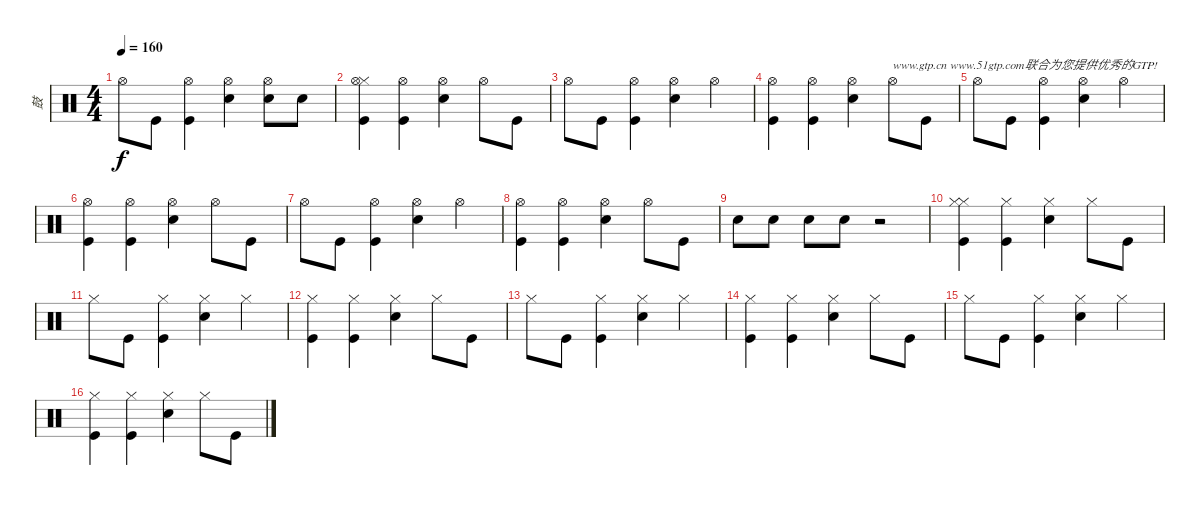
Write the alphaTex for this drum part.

\track ("鼓" "鼓") {instrument percussion}
\staff {score}
\articulation defaults
\ts (4 4)
\tempo 160
\clef neutral
\ks c "Hi-Hat (open)".8{dy f} "Kick (hit)".8
("Hi-Hat (open)" "Kick (hit)").4 ("Hi-Hat (open)" "Electric Snare (hit)").4 ("Hi-Hat (open)" "Electric Snare (hit)").8 "Electric Snare (hit)".8 |
("Hi-Hat (closed)" "Hi-Hat (open)" "Kick (hit)").4 ("Hi-Hat (open)" "Kick (hit)").4 ("Hi-Hat (open)" "Electric Snare (hit)").4 "Hi-Hat (open)".8 "Kick (hit)".8 |
"Hi-Hat (open)".8 "Kick (hit)".8 ("Hi-Hat (open)" "Kick (hit)").4 ("Hi-Hat (open)" "Electric Snare (hit)").4 "Hi-Hat (open)".4 |
("Hi-Hat (open)" "Kick (hit)").4 ("Hi-Hat (open)" "Kick (hit)").4 ("Hi-Hat (open)" "Electric Snare (hit)").4 "Hi-Hat (open)".8{txt "www.gtp.cn www.51gtp.com联合为您提供优秀的GTP!"} "Kick (hit)".8 |
"Hi-Hat (open)".8 "Kick (hit)".8 ("Hi-Hat (open)" "Kick (hit)").4 ("Hi-Hat (open)" "Electric Snare (hit)").4 "Hi-Hat (open)".4 |
("Hi-Hat (open)" "Kick (hit)").4 ("Hi-Hat (open)" "Kick (hit)").4 ("Hi-Hat (open)" "Electric Snare (hit)").4 "Hi-Hat (open)".8 "Kick (hit)".8 |
"Hi-Hat (open)".8 "Kick (hit)".8 ("Hi-Hat (open)" "Kick (hit)").4 ("Hi-Hat (open)" "Electric Snare (hit)").4 "Hi-Hat (open)".4 |
("Hi-Hat (open)" "Kick (hit)").4 ("Hi-Hat (open)" "Kick (hit)").4 ("Hi-Hat (open)" "Electric Snare (hit)").4 "Hi-Hat (open)".8 "Kick (hit)".8 |
"Electric Snare (hit)".8 "Electric Snare (hit)".8 "Electric Snare (hit)".8 "Electric Snare (hit)".8 r.2 |
("Hi-Hat (closed)" "Hi-Hat (closed)" "Kick (hit)").4 ("Hi-Hat (closed)" "Kick (hit)").4 ("Hi-Hat (closed)" "Electric Snare (hit)").4 "Hi-Hat (closed)".8 "Kick (hit)".8 |
"Hi-Hat (closed)".8 "Kick (hit)".8 ("Hi-Hat (closed)" "Kick (hit)").4 ("Hi-Hat (closed)" "Electric Snare (hit)").4 "Hi-Hat (closed)".4 |
("Hi-Hat (closed)" "Kick (hit)").4 ("Hi-Hat (closed)" "Kick (hit)").4 ("Hi-Hat (closed)" "Electric Snare (hit)").4 "Hi-Hat (closed)".8 "Kick (hit)".8 |
"Hi-Hat (closed)".8 "Kick (hit)".8 ("Hi-Hat (closed)" "Kick (hit)").4 ("Hi-Hat (closed)" "Electric Snare (hit)").4 "Hi-Hat (closed)".4 |
("Hi-Hat (closed)" "Kick (hit)").4 ("Hi-Hat (closed)" "Kick (hit)").4 ("Hi-Hat (closed)" "Electric Snare (hit)").4 "Hi-Hat (closed)".8 "Kick (hit)".8 |
"Hi-Hat (closed)".8 "Kick (hit)".8 ("Hi-Hat (closed)" "Kick (hit)").4 ("Hi-Hat (closed)" "Electric Snare (hit)").4 "Hi-Hat (closed)".4 |
("Hi-Hat (closed)" "Kick (hit)").4 ("Hi-Hat (closed)" "Kick (hit)").4 ("Hi-Hat (closed)" "Electric Snare (hit)").4 "Hi-Hat (closed)".8 "Kick (hit)".8
